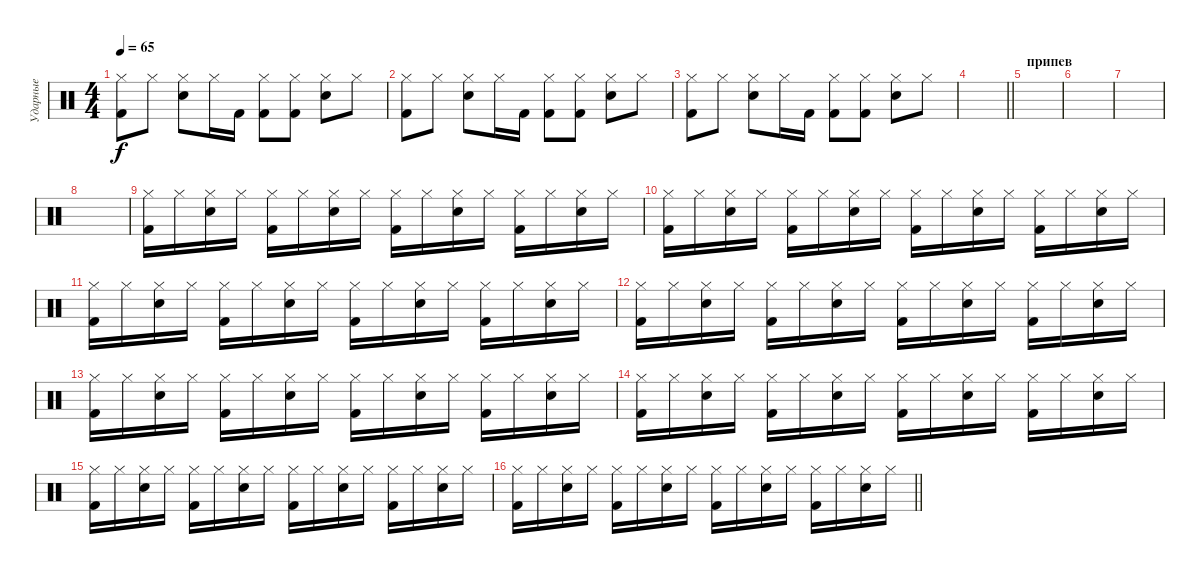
\track ("Ударные" "Ударные") {instrument percussion}
\staff {score}
\articulation defaults
\ts (4 4)
\tempo 65
\clef neutral
\ks c
("Hi-Hat (closed)" "Kick (hit) 2").8{dy f} "Hi-Hat (closed)".8 ("Hi-Hat (closed)" "Snare (hit) 2").8 "Hi-Hat (closed)".16 "Kick (hit) 2".16 ("Hi-Hat (closed)" "Kick (hit) 2").8 ("Hi-Hat (closed)" "Kick (hit) 2").8 ("Hi-Hat (closed)" "Snare (hit) 2").8 "Hi-Hat (closed)".8 |
("Hi-Hat (closed)" "Kick (hit) 2").8 "Hi-Hat (closed)".8 ("Hi-Hat (closed)" "Snare (hit) 2").8 "Hi-Hat (closed)".16 "Kick (hit) 2".16 ("Hi-Hat (closed)" "Kick (hit) 2").8 ("Hi-Hat (closed)" "Kick (hit) 2").8 ("Hi-Hat (closed)" "Snare (hit) 2").8 "Hi-Hat (closed)".8 |
("Hi-Hat (closed)" "Kick (hit) 2").8 "Hi-Hat (closed)".8 ("Hi-Hat (closed)" "Snare (hit) 2").8 "Hi-Hat (closed)".16 "Kick (hit) 2".16 ("Hi-Hat (closed)" "Kick (hit) 2").8 ("Hi-Hat (closed)" "Kick (hit) 2").8 ("Hi-Hat (closed)" "Snare (hit) 2").8 "Hi-Hat (closed)".8 |
\barLineRight lightlight
|
\section ("" "припев")
|
|
|
|
("Hi-Hat (closed)" "Kick (hit) 2").16 "Hi-Hat (closed)".16 ("Hi-Hat (closed)" "Snare (hit) 2").16 "Hi-Hat (closed)".16 ("Hi-Hat (closed)" "Kick (hit) 2").16 "Hi-Hat (closed)".16 ("Hi-Hat (closed)" "Snare (hit) 2").16 "Hi-Hat (closed)".16 ("Hi-Hat (closed)" "Kick (hit) 2").16 "Hi-Hat (closed)".16 ("Hi-Hat (closed)" "Snare (hit) 2").16 "Hi-Hat (closed)".16 ("Hi-Hat (closed)" "Kick (hit) 2").16 "Hi-Hat (closed)".16 ("Hi-Hat (closed)" "Snare (hit) 2").16 "Hi-Hat (closed)".16 |
("Hi-Hat (closed)" "Kick (hit) 2").16 "Hi-Hat (closed)".16 ("Hi-Hat (closed)" "Snare (hit) 2").16 "Hi-Hat (closed)".16 ("Hi-Hat (closed)" "Kick (hit) 2").16 "Hi-Hat (closed)".16 ("Hi-Hat (closed)" "Snare (hit) 2").16 "Hi-Hat (closed)".16 ("Hi-Hat (closed)" "Kick (hit) 2").16 "Hi-Hat (closed)".16 ("Hi-Hat (closed)" "Snare (hit) 2").16 "Hi-Hat (closed)".16 ("Hi-Hat (closed)" "Kick (hit) 2").16 "Hi-Hat (closed)".16 ("Hi-Hat (closed)" "Snare (hit) 2").16 "Hi-Hat (closed)".16 |
("Hi-Hat (closed)" "Kick (hit) 2").16 "Hi-Hat (closed)".16 ("Hi-Hat (closed)" "Snare (hit) 2").16 "Hi-Hat (closed)".16 ("Hi-Hat (closed)" "Kick (hit) 2").16 "Hi-Hat (closed)".16 ("Hi-Hat (closed)" "Snare (hit) 2").16 "Hi-Hat (closed)".16 ("Hi-Hat (closed)" "Kick (hit) 2").16 "Hi-Hat (closed)".16 ("Hi-Hat (closed)" "Snare (hit) 2").16 "Hi-Hat (closed)".16 ("Hi-Hat (closed)" "Kick (hit) 2").16 "Hi-Hat (closed)".16 ("Hi-Hat (closed)" "Snare (hit) 2").16 "Hi-Hat (closed)".16 |
("Hi-Hat (closed)" "Kick (hit) 2").16 "Hi-Hat (closed)".16 ("Hi-Hat (closed)" "Snare (hit) 2").16 "Hi-Hat (closed)".16 ("Hi-Hat (closed)" "Kick (hit) 2").16 "Hi-Hat (closed)".16 ("Hi-Hat (closed)" "Snare (hit) 2").16 "Hi-Hat (closed)".16 ("Hi-Hat (closed)" "Kick (hit) 2").16 "Hi-Hat (closed)".16 ("Hi-Hat (closed)" "Snare (hit) 2").16 "Hi-Hat (closed)".16 ("Hi-Hat (closed)" "Kick (hit) 2").16 "Hi-Hat (closed)".16 ("Hi-Hat (closed)" "Snare (hit) 2").16 "Hi-Hat (closed)".16 |
("Hi-Hat (closed)" "Kick (hit) 2").16 "Hi-Hat (closed)".16 ("Hi-Hat (closed)" "Snare (hit) 2").16 "Hi-Hat (closed)".16 ("Hi-Hat (closed)" "Kick (hit) 2").16 "Hi-Hat (closed)".16 ("Hi-Hat (closed)" "Snare (hit) 2").16 "Hi-Hat (closed)".16 ("Hi-Hat (closed)" "Kick (hit) 2").16 "Hi-Hat (closed)".16 ("Hi-Hat (closed)" "Snare (hit) 2").16 "Hi-Hat (closed)".16 ("Hi-Hat (closed)" "Kick (hit) 2").16 "Hi-Hat (closed)".16 ("Hi-Hat (closed)" "Snare (hit) 2").16 "Hi-Hat (closed)".16 |
("Hi-Hat (closed)" "Kick (hit) 2").16 "Hi-Hat (closed)".16 ("Hi-Hat (closed)" "Snare (hit) 2").16 "Hi-Hat (closed)".16 ("Hi-Hat (closed)" "Kick (hit) 2").16 "Hi-Hat (closed)".16 ("Hi-Hat (closed)" "Snare (hit) 2").16 "Hi-Hat (closed)".16 ("Hi-Hat (closed)" "Kick (hit) 2").16 "Hi-Hat (closed)".16 ("Hi-Hat (closed)" "Snare (hit) 2").16 "Hi-Hat (closed)".16 ("Hi-Hat (closed)" "Kick (hit) 2").16 "Hi-Hat (closed)".16 ("Hi-Hat (closed)" "Snare (hit) 2").16 "Hi-Hat (closed)".16 |
("Hi-Hat (closed)" "Kick (hit) 2").16 "Hi-Hat (closed)".16 ("Hi-Hat (closed)" "Snare (hit) 2").16 "Hi-Hat (closed)".16 ("Hi-Hat (closed)" "Kick (hit) 2").16 "Hi-Hat (closed)".16 ("Hi-Hat (closed)" "Snare (hit) 2").16 "Hi-Hat (closed)".16 ("Hi-Hat (closed)" "Kick (hit) 2").16 "Hi-Hat (closed)".16 ("Hi-Hat (closed)" "Snare (hit) 2").16 "Hi-Hat (closed)".16 ("Hi-Hat (closed)" "Kick (hit) 2").16 "Hi-Hat (closed)".16 ("Hi-Hat (closed)" "Snare (hit) 2").16 "Hi-Hat (closed)".16 |
\barLineRight lightlight
("Hi-Hat (closed)" "Kick (hit) 2").16 "Hi-Hat (closed)".16 ("Hi-Hat (closed)" "Snare (hit) 2").16 "Hi-Hat (closed)".16 ("Hi-Hat (closed)" "Kick (hit) 2").16 "Hi-Hat (closed)".16 ("Hi-Hat (closed)" "Snare (hit) 2").16 "Hi-Hat (closed)".16 ("Hi-Hat (closed)" "Kick (hit) 2").16 "Hi-Hat (closed)".16 ("Hi-Hat (closed)" "Snare (hit) 2").16 "Hi-Hat (closed)".16 ("Hi-Hat (closed)" "Kick (hit) 2").16 "Hi-Hat (closed)".16 ("Hi-Hat (closed)" "Snare (hit) 2").16 "Hi-Hat (closed)".16
